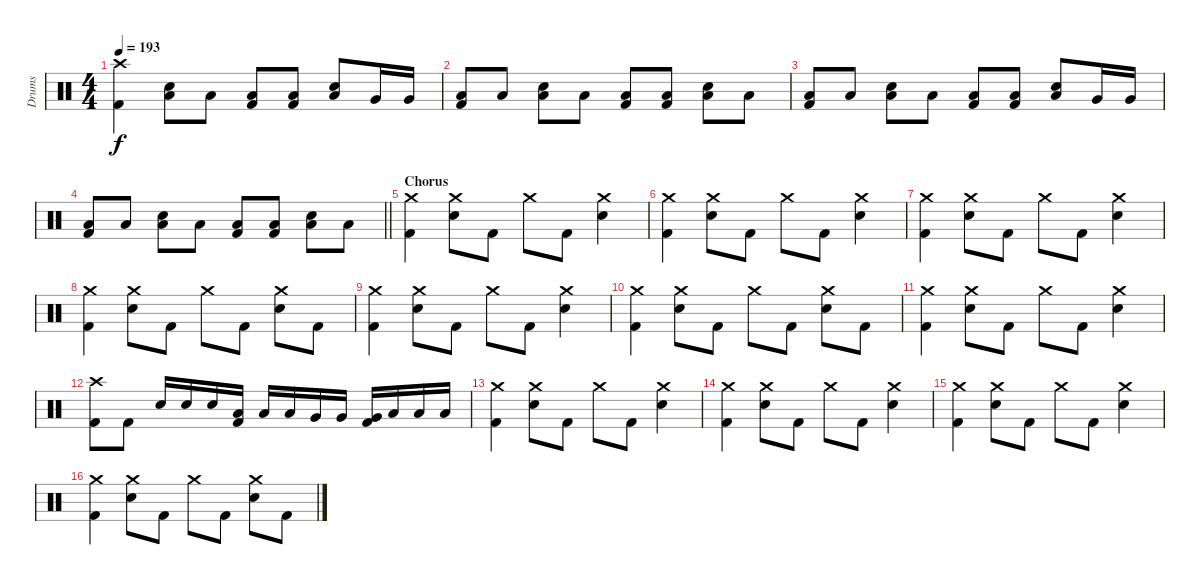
\track ("Drums" "Drums") {instrument percussion}
\staff {score}
\articulation defaults
\ts (4 4)
\tempo 193
\clef neutral
\ks c
("Crash high (hit)" "Kick (hit) 2").4{dy f} ("Low Floor Tom (hit)" "Electric Snare (hit)").8 "Low Floor Tom (hit)".8 ("Low Floor Tom (hit)" "Kick (hit) 2").8 ("Low Floor Tom (hit)" "Kick (hit) 2").8 ("Low Floor Tom (hit)" "Electric Snare (hit)").8 "Very Low Tom (hit)".16 "Very Low Tom (hit)".16 |
("Low Floor Tom (hit)" "Kick (hit) 2").8 "Low Floor Tom (hit)".8 ("Low Floor Tom (hit)" "Electric Snare (hit)").8 "Low Floor Tom (hit)".8 ("Low Floor Tom (hit)" "Kick (hit) 2").8 ("Low Floor Tom (hit)" "Kick (hit) 2").8 ("Low Floor Tom (hit)" "Electric Snare (hit)").8 "Low Floor Tom (hit)".8 |
("Low Floor Tom (hit)" "Kick (hit) 2").8 "Low Floor Tom (hit)".8 ("Low Floor Tom (hit)" "Electric Snare (hit)").8 "Low Floor Tom (hit)".8 ("Low Floor Tom (hit)" "Kick (hit) 2").8 ("Low Floor Tom (hit)" "Kick (hit) 2").8 ("Low Floor Tom (hit)" "Electric Snare (hit)").8 "Very Low Tom (hit)".16 "Very Low Tom (hit)".16 |
\barLineRight lightlight
("Low Floor Tom (hit)" "Kick (hit) 2").8 "Low Floor Tom (hit)".8 ("Low Floor Tom (hit)" "Electric Snare (hit)").8 "Low Floor Tom (hit)".8 ("Low Floor Tom (hit)" "Kick (hit) 2").8 ("Low Floor Tom (hit)" "Kick (hit) 2").8 ("Low Floor Tom (hit)" "Electric Snare (hit)").8 "Low Floor Tom (hit)".8 |
\section ("" "Chorus")
("Crash medium (hit)" "Kick (hit) 2").4 ("Crash medium (hit)" "Electric Snare (hit)").8 "Kick (hit) 2".8 "Crash medium (hit)".8 "Kick (hit) 2".8 ("Crash medium (hit)" "Electric Snare (hit)").4 |
("Crash medium (hit)" "Kick (hit) 2").4 ("Crash medium (hit)" "Electric Snare (hit)").8 "Kick (hit) 2".8 "Crash medium (hit)".8 "Kick (hit) 2".8 ("Crash medium (hit)" "Electric Snare (hit)").4 |
("Crash medium (hit)" "Kick (hit) 2").4 ("Crash medium (hit)" "Electric Snare (hit)").8 "Kick (hit) 2".8 "Crash medium (hit)".8 "Kick (hit) 2".8 ("Crash medium (hit)" "Electric Snare (hit)").4 |
("Crash medium (hit)" "Kick (hit) 2").4 ("Crash medium (hit)" "Electric Snare (hit)").8 "Kick (hit) 2".8 "Crash medium (hit)".8 "Kick (hit) 2".8 ("Crash medium (hit)" "Electric Snare (hit)").8 "Kick (hit) 2".8 |
("Crash medium (hit)" "Kick (hit) 2").4 ("Crash medium (hit)" "Electric Snare (hit)").8 "Kick (hit) 2".8 "Crash medium (hit)".8 "Kick (hit) 2".8 ("Crash medium (hit)" "Electric Snare (hit)").4 |
("Crash medium (hit)" "Kick (hit) 2").4 ("Crash medium (hit)" "Electric Snare (hit)").8 "Kick (hit) 2".8 "Crash medium (hit)".8 "Kick (hit) 2".8 ("Crash medium (hit)" "Electric Snare (hit)").8 "Kick (hit) 2".8 |
("Crash medium (hit)" "Kick (hit) 2").4 ("Crash medium (hit)" "Electric Snare (hit)").8 "Kick (hit) 2".8 "Crash medium (hit)".8 "Kick (hit) 2".8 ("Crash medium (hit)" "Electric Snare (hit)").4 |
("Crash high (hit)" "Kick (hit) 2").8 "Kick (hit) 2".8 "Electric Snare (hit)".16 "Electric Snare (hit)".16 "Electric Snare (hit)".16 ("Low Tom (hit)" "Kick (hit) 2").16 "Low Tom (hit)".16 "Low Tom (hit)".16 "Very Low Tom (hit)".16 "Very Low Tom (hit)".16 ("Very Low Tom (hit)" "Kick (hit) 2").16 "Low Floor Tom (hit)".16 "Low Floor Tom (hit)".16 "Low Floor Tom (hit)".16 |
("Crash medium (hit)" "Kick (hit) 2").4 ("Crash medium (hit)" "Electric Snare (hit)").8 "Kick (hit) 2".8 "Crash medium (hit)".8 "Kick (hit) 2".8 ("Crash medium (hit)" "Electric Snare (hit)").4 |
("Crash medium (hit)" "Kick (hit) 2").4 ("Crash medium (hit)" "Electric Snare (hit)").8 "Kick (hit) 2".8 "Crash medium (hit)".8 "Kick (hit) 2".8 ("Crash medium (hit)" "Electric Snare (hit)").4 |
("Crash medium (hit)" "Kick (hit) 2").4 ("Crash medium (hit)" "Electric Snare (hit)").8 "Kick (hit) 2".8 "Crash medium (hit)".8 "Kick (hit) 2".8 ("Crash medium (hit)" "Electric Snare (hit)").4 |
("Crash medium (hit)" "Kick (hit) 2").4 ("Crash medium (hit)" "Electric Snare (hit)").8 "Kick (hit) 2".8 "Crash medium (hit)".8 "Kick (hit) 2".8 ("Crash medium (hit)" "Electric Snare (hit)").8 "Kick (hit) 2".8
